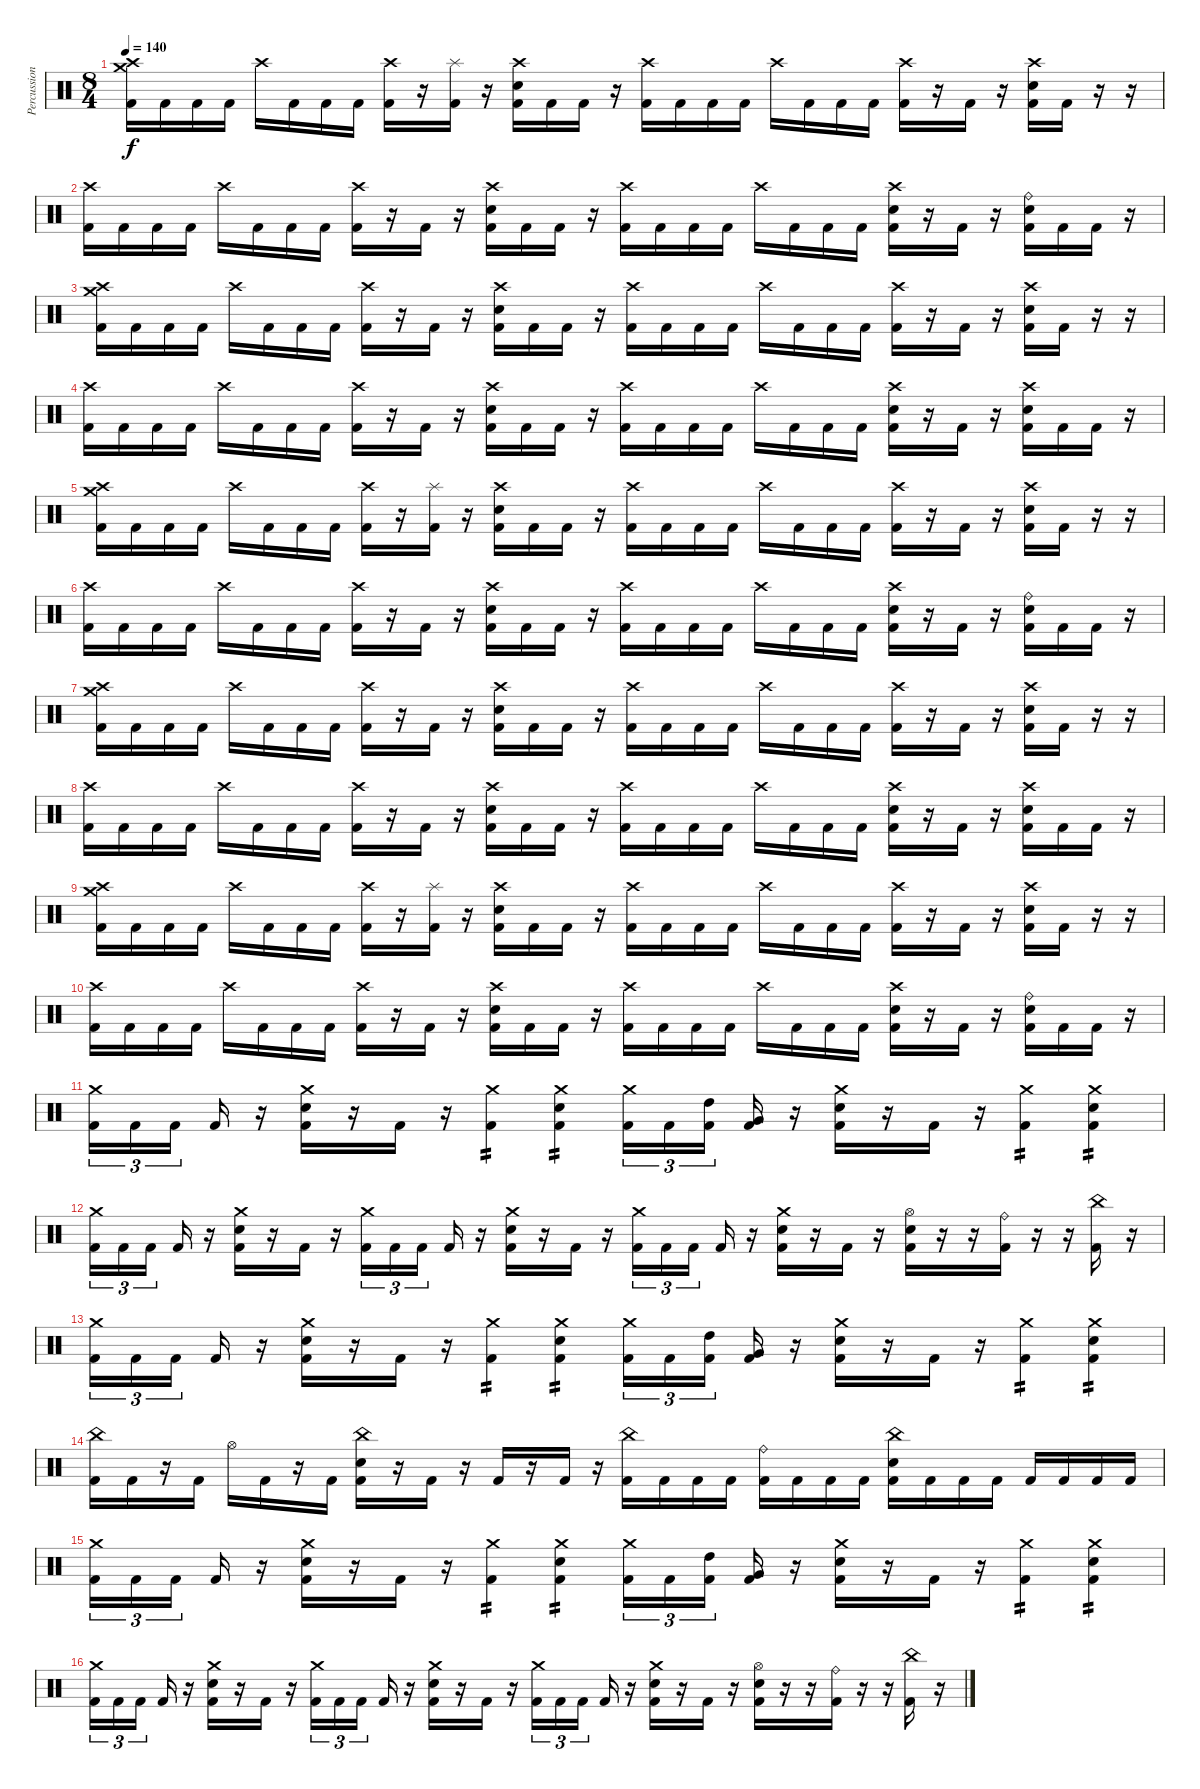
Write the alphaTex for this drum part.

\track ("Percussion" "Percussion") {solo instrument percussion}
\staff {score}
\articulation defaults
\ts (8 4)
\tempo 140
\clef neutral
\ks c
("Crash high (hit)" "Crash medium (hit)" "Kick (hit) 2").16{dy f} "Kick (hit) 2".16 "Kick (hit) 2".16 "Kick (hit) 2".16 "Crash high (hit)".16 "Kick (hit) 2".16 "Kick (hit) 2".16 "Kick (hit) 2".16 ("Crash high (hit)" "Kick (hit) 2").16 r.16 ("Splash (hit)" "Kick (hit) 2").16 r.16 ("Crash high (hit)" "Electric Snare (hit)" "Kick (hit) 2").16 "Kick (hit) 2".16 "Kick (hit) 2".16 r.16 ("Crash high (hit)" "Kick (hit) 2").16 "Kick (hit) 2".16 "Kick (hit) 2".16 "Kick (hit) 2".16 "Crash high (hit)".16 "Kick (hit) 2".16 "Kick (hit) 2".16 "Kick (hit) 2".16 ("Crash high (hit)" "Kick (hit) 2").16 r.16 "Kick (hit) 2".16 r.16 ("Crash high (hit)" "Electric Snare (hit)" "Kick (hit) 2").16 "Kick (hit) 2".16 r.16 r.16 |
("Crash high (hit)" "Kick (hit) 2").16 "Kick (hit) 2".16 "Kick (hit) 2".16 "Kick (hit) 2".16 "Crash high (hit)".16 "Kick (hit) 2".16 "Kick (hit) 2".16 "Kick (hit) 2".16 ("Crash high (hit)" "Kick (hit) 2").16 r.16 "Kick (hit) 2".16 r.16 ("Crash high (hit)" "Electric Snare (hit)" "Kick (hit) 2").16 "Kick (hit) 2".16 "Kick (hit) 2".16 r.16 ("Crash high (hit)" "Kick (hit) 2").16 "Kick (hit) 2".16 "Kick (hit) 2".16 "Kick (hit) 2".16 "Crash high (hit)".16 "Kick (hit) 2".16 "Kick (hit) 2".16 "Kick (hit) 2".16 ("Crash high (hit)" "Electric Snare (hit)" "Kick (hit) 2").16 r.16 "Kick (hit) 2".16 r.16 ("Ride (bell)" "Electric Snare (hit)" "Kick (hit) 2").16 "Kick (hit) 2".16 "Kick (hit) 2".16 r.16 |
("Crash high (hit)" "Crash medium (hit)" "Kick (hit) 2").16 "Kick (hit) 2".16 "Kick (hit) 2".16 "Kick (hit) 2".16 "Crash high (hit)".16 "Kick (hit) 2".16 "Kick (hit) 2".16 "Kick (hit) 2".16 ("Crash high (hit)" "Kick (hit) 2").16 r.16 "Kick (hit) 2".16 r.16 ("Crash high (hit)" "Electric Snare (hit)" "Kick (hit) 2").16 "Kick (hit) 2".16 "Kick (hit) 2".16 r.16 ("Crash high (hit)" "Kick (hit) 2").16 "Kick (hit) 2".16 "Kick (hit) 2".16 "Kick (hit) 2".16 "Crash high (hit)".16 "Kick (hit) 2".16 "Kick (hit) 2".16 "Kick (hit) 2".16 ("Crash high (hit)" "Kick (hit) 2").16 r.16 "Kick (hit) 2".16 r.16 ("Crash high (hit)" "Electric Snare (hit)" "Kick (hit) 2").16 "Kick (hit) 2".16 r.16 r.16 |
("Crash high (hit)" "Kick (hit) 2").16 "Kick (hit) 2".16 "Kick (hit) 2".16 "Kick (hit) 2".16 "Crash high (hit)".16 "Kick (hit) 2".16 "Kick (hit) 2".16 "Kick (hit) 2".16 ("Crash high (hit)" "Kick (hit) 2").16 r.16 "Kick (hit) 2".16 r.16 ("Crash high (hit)" "Electric Snare (hit)" "Kick (hit) 2").16 "Kick (hit) 2".16 "Kick (hit) 2".16 r.16 ("Crash high (hit)" "Kick (hit) 2").16 "Kick (hit) 2".16 "Kick (hit) 2".16 "Kick (hit) 2".16 "Crash high (hit)".16 "Kick (hit) 2".16 "Kick (hit) 2".16 "Kick (hit) 2".16 ("Crash high (hit)" "Electric Snare (hit)" "Kick (hit) 2").16 r.16 "Kick (hit) 2".16 r.16 ("Crash high (hit)" "Electric Snare (hit)" "Kick (hit) 2").16 "Kick (hit) 2".16 "Kick (hit) 2".16 r.16 |
("Crash high (hit)" "Crash medium (hit)" "Kick (hit) 2").16 "Kick (hit) 2".16 "Kick (hit) 2".16 "Kick (hit) 2".16 "Crash high (hit)".16 "Kick (hit) 2".16 "Kick (hit) 2".16 "Kick (hit) 2".16 ("Crash high (hit)" "Kick (hit) 2").16 r.16 ("Splash (hit)" "Kick (hit) 2").16 r.16 ("Crash high (hit)" "Electric Snare (hit)" "Kick (hit) 2").16 "Kick (hit) 2".16 "Kick (hit) 2".16 r.16 ("Crash high (hit)" "Kick (hit) 2").16 "Kick (hit) 2".16 "Kick (hit) 2".16 "Kick (hit) 2".16 "Crash high (hit)".16 "Kick (hit) 2".16 "Kick (hit) 2".16 "Kick (hit) 2".16 ("Crash high (hit)" "Kick (hit) 2").16 r.16 "Kick (hit) 2".16 r.16 ("Crash high (hit)" "Electric Snare (hit)" "Kick (hit) 2").16 "Kick (hit) 2".16 r.16 r.16 |
("Crash high (hit)" "Kick (hit) 2").16 "Kick (hit) 2".16 "Kick (hit) 2".16 "Kick (hit) 2".16 "Crash high (hit)".16 "Kick (hit) 2".16 "Kick (hit) 2".16 "Kick (hit) 2".16 ("Crash high (hit)" "Kick (hit) 2").16 r.16 "Kick (hit) 2".16 r.16 ("Crash high (hit)" "Electric Snare (hit)" "Kick (hit) 2").16 "Kick (hit) 2".16 "Kick (hit) 2".16 r.16 ("Crash high (hit)" "Kick (hit) 2").16 "Kick (hit) 2".16 "Kick (hit) 2".16 "Kick (hit) 2".16 "Crash high (hit)".16 "Kick (hit) 2".16 "Kick (hit) 2".16 "Kick (hit) 2".16 ("Crash high (hit)" "Electric Snare (hit)" "Kick (hit) 2").16 r.16 "Kick (hit) 2".16 r.16 ("Ride (bell)" "Electric Snare (hit)" "Kick (hit) 2").16 "Kick (hit) 2".16 "Kick (hit) 2".16 r.16 |
("Crash high (hit)" "Crash medium (hit)" "Kick (hit) 2").16 "Kick (hit) 2".16 "Kick (hit) 2".16 "Kick (hit) 2".16 "Crash high (hit)".16 "Kick (hit) 2".16 "Kick (hit) 2".16 "Kick (hit) 2".16 ("Crash high (hit)" "Kick (hit) 2").16 r.16 "Kick (hit) 2".16 r.16 ("Crash high (hit)" "Electric Snare (hit)" "Kick (hit) 2").16 "Kick (hit) 2".16 "Kick (hit) 2".16 r.16 ("Crash high (hit)" "Kick (hit) 2").16 "Kick (hit) 2".16 "Kick (hit) 2".16 "Kick (hit) 2".16 "Crash high (hit)".16 "Kick (hit) 2".16 "Kick (hit) 2".16 "Kick (hit) 2".16 ("Crash high (hit)" "Kick (hit) 2").16 r.16 "Kick (hit) 2".16 r.16 ("Crash high (hit)" "Electric Snare (hit)" "Kick (hit) 2").16 "Kick (hit) 2".16 r.16 r.16 |
("Crash high (hit)" "Kick (hit) 2").16 "Kick (hit) 2".16 "Kick (hit) 2".16 "Kick (hit) 2".16 "Crash high (hit)".16 "Kick (hit) 2".16 "Kick (hit) 2".16 "Kick (hit) 2".16 ("Crash high (hit)" "Kick (hit) 2").16 r.16 "Kick (hit) 2".16 r.16 ("Crash high (hit)" "Electric Snare (hit)" "Kick (hit) 2").16 "Kick (hit) 2".16 "Kick (hit) 2".16 r.16 ("Crash high (hit)" "Kick (hit) 2").16 "Kick (hit) 2".16 "Kick (hit) 2".16 "Kick (hit) 2".16 "Crash high (hit)".16 "Kick (hit) 2".16 "Kick (hit) 2".16 "Kick (hit) 2".16 ("Crash high (hit)" "Electric Snare (hit)" "Kick (hit) 2").16 r.16 "Kick (hit) 2".16 r.16 ("Crash high (hit)" "Electric Snare (hit)" "Kick (hit) 2").16 "Kick (hit) 2".16 "Kick (hit) 2".16 r.16 |
("Crash high (hit)" "Crash medium (hit)" "Kick (hit) 2").16 "Kick (hit) 2".16 "Kick (hit) 2".16 "Kick (hit) 2".16 "Crash high (hit)".16 "Kick (hit) 2".16 "Kick (hit) 2".16 "Kick (hit) 2".16 ("Crash high (hit)" "Kick (hit) 2").16 r.16 ("Splash (hit)" "Kick (hit) 2").16 r.16 ("Crash high (hit)" "Electric Snare (hit)" "Kick (hit) 2").16 "Kick (hit) 2".16 "Kick (hit) 2".16 r.16 ("Crash high (hit)" "Kick (hit) 2").16 "Kick (hit) 2".16 "Kick (hit) 2".16 "Kick (hit) 2".16 "Crash high (hit)".16 "Kick (hit) 2".16 "Kick (hit) 2".16 "Kick (hit) 2".16 ("Crash high (hit)" "Kick (hit) 2").16 r.16 "Kick (hit) 2".16 r.16 ("Crash high (hit)" "Electric Snare (hit)" "Kick (hit) 2").16 "Kick (hit) 2".16 r.16 r.16 |
("Crash high (hit)" "Kick (hit) 2").16 "Kick (hit) 2".16 "Kick (hit) 2".16 "Kick (hit) 2".16 "Crash high (hit)".16 "Kick (hit) 2".16 "Kick (hit) 2".16 "Kick (hit) 2".16 ("Crash high (hit)" "Kick (hit) 2").16 r.16 "Kick (hit) 2".16 r.16 ("Crash high (hit)" "Electric Snare (hit)" "Kick (hit) 2").16 "Kick (hit) 2".16 "Kick (hit) 2".16 r.16 ("Crash high (hit)" "Kick (hit) 2").16 "Kick (hit) 2".16 "Kick (hit) 2".16 "Kick (hit) 2".16 "Crash high (hit)".16 "Kick (hit) 2".16 "Kick (hit) 2".16 "Kick (hit) 2".16 ("Crash high (hit)" "Electric Snare (hit)" "Kick (hit) 2").16 r.16 "Kick (hit) 2".16 r.16 ("Ride (bell)" "Electric Snare (hit)" "Kick (hit) 2").16 "Kick (hit) 2".16 "Kick (hit) 2".16 r.16 |
("Crash medium (hit)" "Kick (hit) 2").16{tu (3 2)} "Kick (hit) 2".16{tu (3 2)} "Kick (hit) 2".16{tu (3 2) beam splitsecondary} "Kick (hit) 2".16 r.16 ("Crash medium (hit)" "Electric Snare (hit)" "Kick (hit) 2").16 r.16 "Kick (hit) 2".16 r.16 ("Crash medium (hit)" "Kick (hit) 2").4{tp 2} ("Crash medium (hit)" "Electric Snare (hit)" "Kick (hit) 2").4{tp 2} ("Crash medium (hit)" "Kick (hit) 2").16{tu (3 2)} "Kick (hit) 2".16{tu (3 2)} ("High Tom (hit)" "Kick (hit) 2").16{tu (3 2) beam splitsecondary} ("Very Low Tom (hit)" "Kick (hit) 2").16 r.16 ("Crash medium (hit)" "Electric Snare (hit)" "Kick (hit) 2").16 r.16 "Kick (hit) 2".16 r.16 ("Crash medium (hit)" "Kick (hit) 2").4{tp 2} ("Crash medium (hit)" "Electric Snare (hit)" "Kick (hit) 2").4{tp 2} |
("Crash medium (hit)" "Kick (hit) 2").16{tu (3 2)} "Kick (hit) 2".16{tu (3 2)} "Kick (hit) 2".16{tu (3 2) beam splitsecondary} "Kick (hit) 2".16 r.16 ("Crash medium (hit)" "Electric Snare (hit)" "Kick (hit) 2").16 r.16 "Kick (hit) 2".16 r.16 ("Crash medium (hit)" "Kick (hit) 2").16{tu (3 2)} "Kick (hit) 2".16{tu (3 2)} "Kick (hit) 2".16{tu (3 2) beam splitsecondary} "Kick (hit) 2".16 r.16 ("Crash medium (hit)" "Electric Snare (hit)" "Kick (hit) 2").16 r.16 "Kick (hit) 2".16 r.16 ("Crash medium (hit)" "Kick (hit) 2").16{tu (3 2)} "Kick (hit) 2".16{tu (3 2)} "Kick (hit) 2".16{tu (3 2) beam splitsecondary} "Kick (hit) 2".16 r.16 ("Crash medium (hit)" "Electric Snare (hit)" "Kick (hit) 2").16 r.16 "Kick (hit) 2".16 r.16 ("Hi-Hat (open)" "Electric Snare (hit)" "Kick (hit) 2").16 r.16 r.16 ("Ride (bell)" "Kick (hit) 2").16 r.16 r.16 ("China (hit)" "Kick (hit) 2").16 r.16 |
("Crash medium (hit)" "Kick (hit) 2").16{tu (3 2)} "Kick (hit) 2".16{tu (3 2)} "Kick (hit) 2".16{tu (3 2) beam splitsecondary} "Kick (hit) 2".16 r.16 ("Crash medium (hit)" "Electric Snare (hit)" "Kick (hit) 2").16 r.16 "Kick (hit) 2".16 r.16 ("Crash medium (hit)" "Kick (hit) 2").4{tp 2} ("Crash medium (hit)" "Electric Snare (hit)" "Kick (hit) 2").4{tp 2} ("Crash medium (hit)" "Kick (hit) 2").16{tu (3 2)} "Kick (hit) 2".16{tu (3 2)} ("High Tom (hit)" "Kick (hit) 2").16{tu (3 2) beam splitsecondary} ("Very Low Tom (hit)" "Kick (hit) 2").16 r.16 ("Crash medium (hit)" "Electric Snare (hit)" "Kick (hit) 2").16 r.16 "Kick (hit) 2".16 r.16 ("Crash medium (hit)" "Kick (hit) 2").4{tp 2} ("Crash medium (hit)" "Electric Snare (hit)" "Kick (hit) 2").4{tp 2} |
("China (hit)" "Kick (hit) 2").16 "Kick (hit) 2".16 r.16 "Kick (hit) 2".16 "Hi-Hat (open)".16 "Kick (hit) 2".16 r.16 "Kick (hit) 2".16 ("China (hit)" "Electric Snare (hit)" "Kick (hit) 2").16 r.16 "Kick (hit) 2".16 r.16 "Kick (hit) 2".16 r.16 "Kick (hit) 2".16 r.16 ("China (hit)" "Kick (hit) 2").16 "Kick (hit) 2".16 "Kick (hit) 2".16 "Kick (hit) 2".16 ("Ride (bell)" "Kick (hit) 2").16 "Kick (hit) 2".16 "Kick (hit) 2".16 "Kick (hit) 2".16 ("China (hit)" "Electric Snare (hit)" "Kick (hit) 2").16 "Kick (hit) 2".16 "Kick (hit) 2".16 "Kick (hit) 2".16 "Kick (hit) 2".16 "Kick (hit) 2".16 "Kick (hit) 2".16 "Kick (hit) 2".16 |
("Crash medium (hit)" "Kick (hit) 2").16{tu (3 2)} "Kick (hit) 2".16{tu (3 2)} "Kick (hit) 2".16{tu (3 2) beam splitsecondary} "Kick (hit) 2".16 r.16 ("Crash medium (hit)" "Electric Snare (hit)" "Kick (hit) 2").16 r.16 "Kick (hit) 2".16 r.16 ("Crash medium (hit)" "Kick (hit) 2").4{tp 2} ("Crash medium (hit)" "Electric Snare (hit)" "Kick (hit) 2").4{tp 2} ("Crash medium (hit)" "Kick (hit) 2").16{tu (3 2)} "Kick (hit) 2".16{tu (3 2)} ("High Tom (hit)" "Kick (hit) 2").16{tu (3 2) beam splitsecondary} ("Very Low Tom (hit)" "Kick (hit) 2").16 r.16 ("Crash medium (hit)" "Electric Snare (hit)" "Kick (hit) 2").16 r.16 "Kick (hit) 2".16 r.16 ("Crash medium (hit)" "Kick (hit) 2").4{tp 2} ("Crash medium (hit)" "Electric Snare (hit)" "Kick (hit) 2").4{tp 2} |
("Crash medium (hit)" "Kick (hit) 2").16{tu (3 2)} "Kick (hit) 2".16{tu (3 2)} "Kick (hit) 2".16{tu (3 2) beam splitsecondary} "Kick (hit) 2".16 r.16 ("Crash medium (hit)" "Electric Snare (hit)" "Kick (hit) 2").16 r.16 "Kick (hit) 2".16 r.16 ("Crash medium (hit)" "Kick (hit) 2").16{tu (3 2)} "Kick (hit) 2".16{tu (3 2)} "Kick (hit) 2".16{tu (3 2) beam splitsecondary} "Kick (hit) 2".16 r.16 ("Crash medium (hit)" "Electric Snare (hit)" "Kick (hit) 2").16 r.16 "Kick (hit) 2".16 r.16 ("Crash medium (hit)" "Kick (hit) 2").16{tu (3 2)} "Kick (hit) 2".16{tu (3 2)} "Kick (hit) 2".16{tu (3 2) beam splitsecondary} "Kick (hit) 2".16 r.16 ("Crash medium (hit)" "Electric Snare (hit)" "Kick (hit) 2").16 r.16 "Kick (hit) 2".16 r.16 ("Hi-Hat (open)" "Electric Snare (hit)" "Kick (hit) 2").16 r.16 r.16 ("Ride (bell)" "Kick (hit) 2").16 r.16 r.16 ("China (hit)" "Kick (hit) 2").16 r.16
